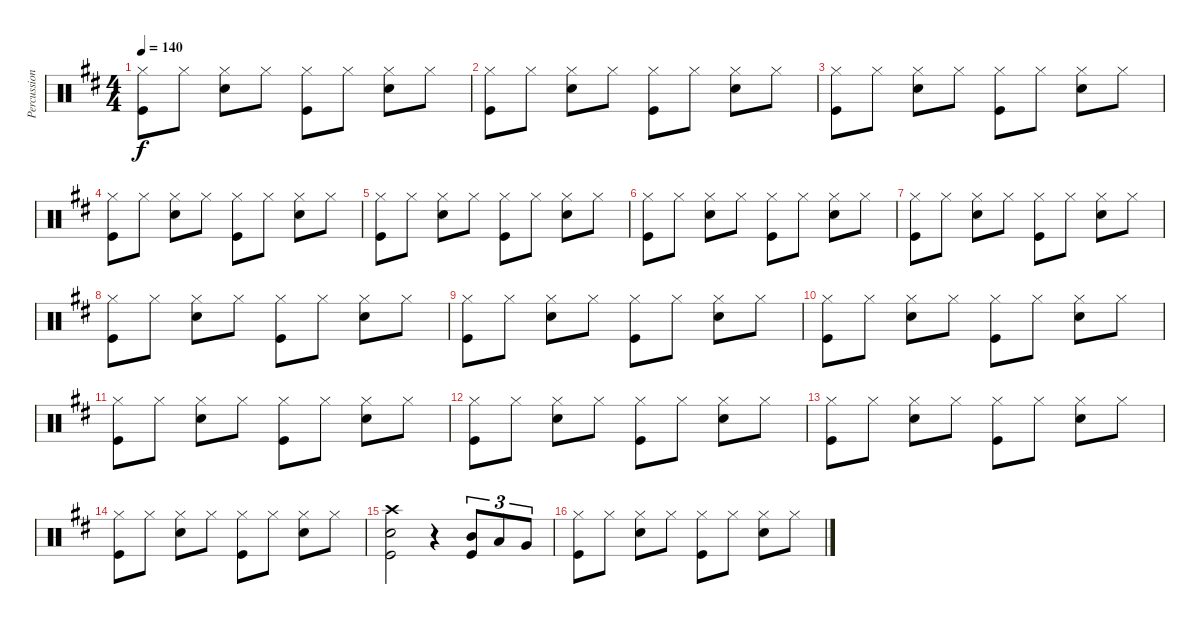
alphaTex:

\track ("Percussion" "Percussion") {instrument percussion}
\staff {score}
\articulation defaults
\ts (4 4)
\tempo 140
\clef neutral
\ks d
("Hi-Hat (closed)" "Kick (hit)").8{dy f} "Hi-Hat (closed)".8 ("Hi-Hat (closed)" "Snare (hit) 2").8 "Hi-Hat (closed)".8 ("Hi-Hat (closed)" "Kick (hit)").8 "Hi-Hat (closed)".8 ("Hi-Hat (closed)" "Snare (hit) 2").8 "Hi-Hat (closed)".8 |
("Hi-Hat (closed)" "Kick (hit)").8 "Hi-Hat (closed)".8 ("Hi-Hat (closed)" "Snare (hit) 2").8 "Hi-Hat (closed)".8 ("Hi-Hat (closed)" "Kick (hit)").8 "Hi-Hat (closed)".8 ("Hi-Hat (closed)" "Snare (hit) 2").8 "Hi-Hat (closed)".8 |
("Hi-Hat (closed)" "Kick (hit)").8 "Hi-Hat (closed)".8 ("Hi-Hat (closed)" "Snare (hit) 2").8 "Hi-Hat (closed)".8 ("Hi-Hat (closed)" "Kick (hit)").8 "Hi-Hat (closed)".8 ("Hi-Hat (closed)" "Snare (hit) 2").8 "Hi-Hat (closed)".8 |
("Hi-Hat (closed)" "Kick (hit)").8 "Hi-Hat (closed)".8 ("Hi-Hat (closed)" "Snare (hit) 2").8 "Hi-Hat (closed)".8 ("Hi-Hat (closed)" "Kick (hit)").8 "Hi-Hat (closed)".8 ("Hi-Hat (closed)" "Snare (hit) 2").8 "Hi-Hat (closed)".8 |
("Hi-Hat (closed)" "Kick (hit)").8 "Hi-Hat (closed)".8 ("Hi-Hat (closed)" "Snare (hit) 2").8 "Hi-Hat (closed)".8 ("Hi-Hat (closed)" "Kick (hit)").8 "Hi-Hat (closed)".8 ("Hi-Hat (closed)" "Snare (hit) 2").8 "Hi-Hat (closed)".8 |
("Hi-Hat (closed)" "Kick (hit)").8 "Hi-Hat (closed)".8 ("Hi-Hat (closed)" "Snare (hit) 2").8 "Hi-Hat (closed)".8 ("Hi-Hat (closed)" "Kick (hit)").8 "Hi-Hat (closed)".8 ("Hi-Hat (closed)" "Snare (hit) 2").8 "Hi-Hat (closed)".8 |
("Hi-Hat (closed)" "Kick (hit)").8 "Hi-Hat (closed)".8 ("Hi-Hat (closed)" "Snare (hit) 2").8 "Hi-Hat (closed)".8 ("Hi-Hat (closed)" "Kick (hit)").8 "Hi-Hat (closed)".8 ("Hi-Hat (closed)" "Snare (hit) 2").8 "Hi-Hat (closed)".8 |
("Hi-Hat (closed)" "Kick (hit)").8 "Hi-Hat (closed)".8 ("Hi-Hat (closed)" "Snare (hit) 2").8 "Hi-Hat (closed)".8 ("Hi-Hat (closed)" "Kick (hit)").8 "Hi-Hat (closed)".8 ("Hi-Hat (closed)" "Snare (hit) 2").8 "Hi-Hat (closed)".8 |
("Hi-Hat (closed)" "Kick (hit)").8 "Hi-Hat (closed)".8 ("Hi-Hat (closed)" "Snare (hit) 2").8 "Hi-Hat (closed)".8 ("Hi-Hat (closed)" "Kick (hit)").8 "Hi-Hat (closed)".8 ("Hi-Hat (closed)" "Snare (hit) 2").8 "Hi-Hat (closed)".8 |
("Hi-Hat (closed)" "Kick (hit)").8 "Hi-Hat (closed)".8 ("Hi-Hat (closed)" "Snare (hit) 2").8 "Hi-Hat (closed)".8 ("Hi-Hat (closed)" "Kick (hit)").8 "Hi-Hat (closed)".8 ("Hi-Hat (closed)" "Snare (hit) 2").8 "Hi-Hat (closed)".8 |
("Hi-Hat (closed)" "Kick (hit)").8 "Hi-Hat (closed)".8 ("Hi-Hat (closed)" "Snare (hit) 2").8 "Hi-Hat (closed)".8 ("Hi-Hat (closed)" "Kick (hit)").8 "Hi-Hat (closed)".8 ("Hi-Hat (closed)" "Snare (hit) 2").8 "Hi-Hat (closed)".8 |
("Hi-Hat (closed)" "Kick (hit)").8 "Hi-Hat (closed)".8 ("Hi-Hat (closed)" "Snare (hit) 2").8 "Hi-Hat (closed)".8 ("Hi-Hat (closed)" "Kick (hit)").8 "Hi-Hat (closed)".8 ("Hi-Hat (closed)" "Snare (hit) 2").8 "Hi-Hat (closed)".8 |
("Hi-Hat (closed)" "Kick (hit)").8 "Hi-Hat (closed)".8 ("Hi-Hat (closed)" "Snare (hit) 2").8 "Hi-Hat (closed)".8 ("Hi-Hat (closed)" "Kick (hit)").8 "Hi-Hat (closed)".8 ("Hi-Hat (closed)" "Snare (hit) 2").8 "Hi-Hat (closed)".8 |
("Hi-Hat (closed)" "Kick (hit)").8 "Hi-Hat (closed)".8 ("Hi-Hat (closed)" "Snare (hit) 2").8 "Hi-Hat (closed)".8 ("Hi-Hat (closed)" "Kick (hit)").8 "Hi-Hat (closed)".8 ("Hi-Hat (closed)" "Snare (hit) 2").8 "Hi-Hat (closed)".8 |
("Crash high (hit)" "Snare (hit) 2" "Kick (hit)").2 r.4 ("Mid Tom (hit)" "Kick (hit)").8{tu (3 2)} "Low Tom (hit)".8{tu (3 2)} "Very Low Tom (hit)".8{tu (3 2)} |
("Hi-Hat (closed)" "Kick (hit)").8 "Hi-Hat (closed)".8 ("Hi-Hat (closed)" "Snare (hit) 2").8 "Hi-Hat (closed)".8 ("Hi-Hat (closed)" "Kick (hit)").8 "Hi-Hat (closed)".8 ("Hi-Hat (closed)" "Snare (hit) 2").8 "Hi-Hat (closed)".8
